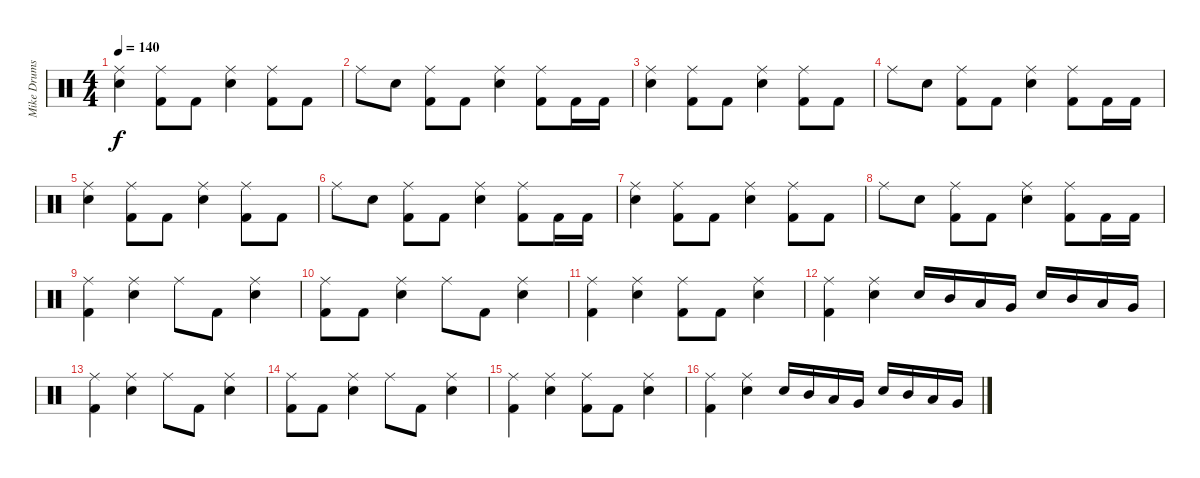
\track ("Mike Drums" "Mike Drums") {instrument percussion}
\staff {score}
\articulation defaults
\ts (4 4)
\tempo 140
\clef neutral
\ks c
("Ride (middle)" "Electric Snare (hit)").4{dy f} ("Ride (middle)" "Kick (hit) 2").8 "Kick (hit) 2".8 ("Ride (middle)" "Electric Snare (hit)").4 ("Ride (middle)" "Kick (hit) 2").8 "Kick (hit) 2".8 |
"Ride (middle)".8 "Electric Snare (hit)".8 ("Ride (middle)" "Kick (hit) 2").8 "Kick (hit) 2".8 ("Ride (middle)" "Electric Snare (hit)").4 ("Ride (middle)" "Kick (hit) 2").8 "Kick (hit) 2".16 "Kick (hit) 2".16 |
("Ride (middle)" "Electric Snare (hit)").4 ("Ride (middle)" "Kick (hit) 2").8 "Kick (hit) 2".8 ("Ride (middle)" "Electric Snare (hit)").4 ("Ride (middle)" "Kick (hit) 2").8 "Kick (hit) 2".8 |
"Ride (middle)".8 "Electric Snare (hit)".8 ("Ride (middle)" "Kick (hit) 2").8 "Kick (hit) 2".8 ("Ride (middle)" "Electric Snare (hit)").4 ("Ride (middle)" "Kick (hit) 2").8 "Kick (hit) 2".16 "Kick (hit) 2".16 |
("Ride (middle)" "Electric Snare (hit)").4 ("Ride (middle)" "Kick (hit) 2").8 "Kick (hit) 2".8 ("Ride (middle)" "Electric Snare (hit)").4 ("Ride (middle)" "Kick (hit) 2").8 "Kick (hit) 2".8 |
"Ride (middle)".8 "Electric Snare (hit)".8 ("Ride (middle)" "Kick (hit) 2").8 "Kick (hit) 2".8 ("Ride (middle)" "Electric Snare (hit)").4 ("Ride (middle)" "Kick (hit) 2").8 "Kick (hit) 2".16 "Kick (hit) 2".16 |
("Ride (middle)" "Electric Snare (hit)").4 ("Ride (middle)" "Kick (hit) 2").8 "Kick (hit) 2".8 ("Ride (middle)" "Electric Snare (hit)").4 ("Ride (middle)" "Kick (hit) 2").8 "Kick (hit) 2".8 |
"Ride (middle)".8 "Electric Snare (hit)".8 ("Ride (middle)" "Kick (hit) 2").8 "Kick (hit) 2".8 ("Ride (middle)" "Electric Snare (hit)").4 ("Ride (middle)" "Kick (hit) 2").8 "Kick (hit) 2".16 "Kick (hit) 2".16 |
("Ride (middle)" "Kick (hit) 2").4 ("Ride (middle)" "Electric Snare (hit)").4 "Ride (middle)".8 "Kick (hit) 2".8 ("Ride (middle)" "Electric Snare (hit)").4 |
("Ride (middle)" "Kick (hit) 2").8 "Kick (hit) 2".8 ("Ride (middle)" "Electric Snare (hit)").4 "Ride (middle)".8 "Kick (hit) 2".8 ("Ride (middle)" "Electric Snare (hit)").4 |
("Ride (middle)" "Kick (hit) 2").4 ("Ride (middle)" "Electric Snare (hit)").4 ("Ride (middle)" "Kick (hit) 2").8 "Kick (hit) 2".8 ("Ride (middle)" "Electric Snare (hit)").4 |
("Ride (middle)" "Kick (hit) 2").4 ("Ride (middle)" "Electric Snare (hit)").4 "Electric Snare (hit)".16 "Mid Tom (hit)".16 "Low Tom (hit)".16 "Very Low Tom (hit)".16 "Electric Snare (hit)".16 "Mid Tom (hit)".16 "Low Tom (hit)".16 "Very Low Tom (hit)".16 |
("Ride (middle)" "Kick (hit) 2").4 ("Ride (middle)" "Electric Snare (hit)").4 "Ride (middle)".8 "Kick (hit) 2".8 ("Ride (middle)" "Electric Snare (hit)").4 |
("Ride (middle)" "Kick (hit) 2").8 "Kick (hit) 2".8 ("Ride (middle)" "Electric Snare (hit)").4 "Ride (middle)".8 "Kick (hit) 2".8 ("Ride (middle)" "Electric Snare (hit)").4 |
("Ride (middle)" "Kick (hit) 2").4 ("Ride (middle)" "Electric Snare (hit)").4 ("Ride (middle)" "Kick (hit) 2").8 "Kick (hit) 2".8 ("Ride (middle)" "Electric Snare (hit)").4 |
("Ride (middle)" "Kick (hit) 2").4 ("Ride (middle)" "Electric Snare (hit)").4 "Electric Snare (hit)".16 "Mid Tom (hit)".16 "Low Tom (hit)".16 "Very Low Tom (hit)".16 "Electric Snare (hit)".16 "Mid Tom (hit)".16 "Low Tom (hit)".16 "Very Low Tom (hit)".16
